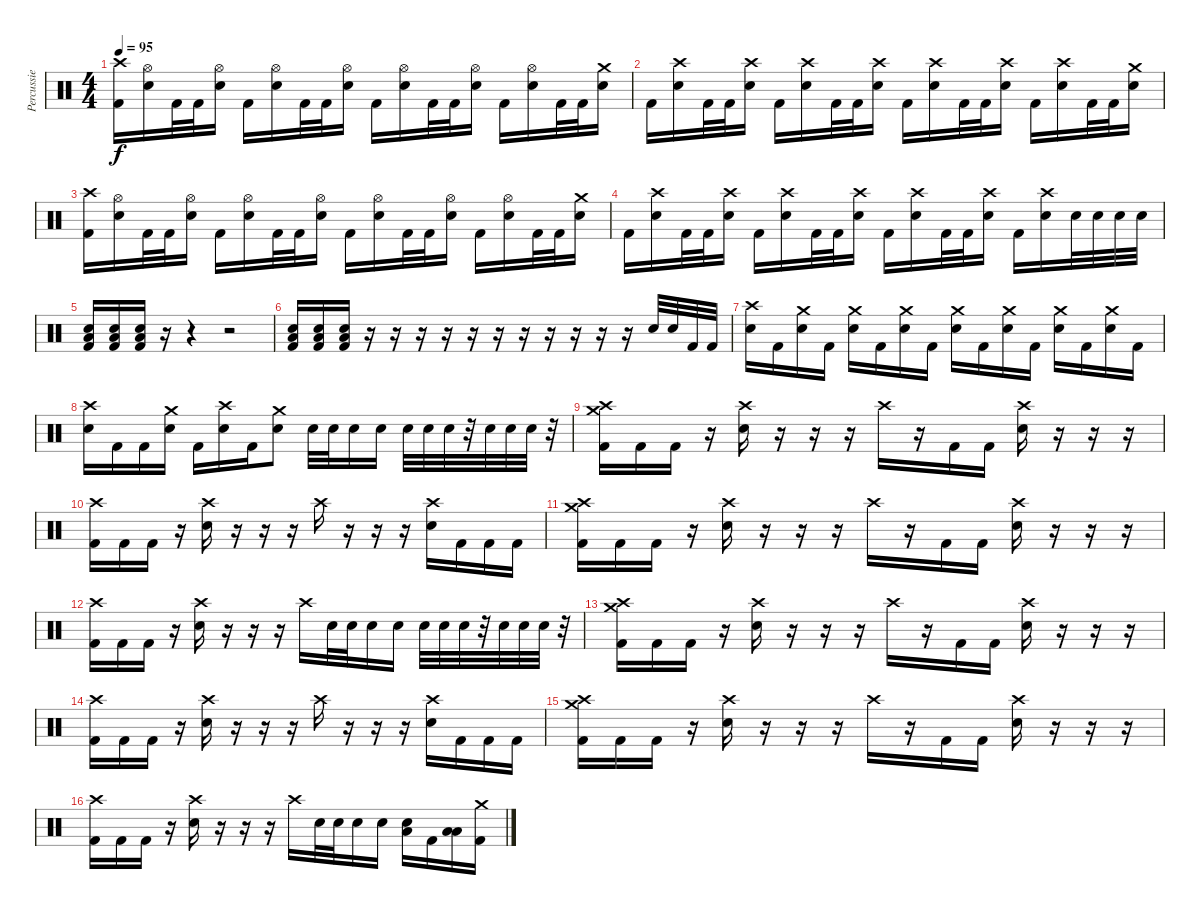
\track ("Percussie" "Percussie") {instrument percussion}
\staff {score}
\articulation defaults
\ts (4 4)
\tempo 95
\clef neutral
\ks c
("Crash high (hit)" "Kick (hit) 2").16{dy f} ("Hi-Hat (open)" "Electric Snare (hit)").16 "Kick (hit) 2".32 "Kick (hit) 2".32 ("Hi-Hat (open)" "Electric Snare (hit)").16 "Kick (hit) 2".16 ("Hi-Hat (open)" "Electric Snare (hit)").16 "Kick (hit) 2".32 "Kick (hit) 2".32 ("Hi-Hat (open)" "Electric Snare (hit)").16 "Kick (hit) 2".16 ("Hi-Hat (open)" "Electric Snare (hit)").16 "Kick (hit) 2".32 "Kick (hit) 2".32 ("Hi-Hat (open)" "Electric Snare (hit)").16 "Kick (hit) 2".16 ("Hi-Hat (open)" "Electric Snare (hit)").16 "Kick (hit) 2".32 "Kick (hit) 2".32 ("Crash medium (hit)" "Electric Snare (hit)").16 |
"Kick (hit) 2".16 ("Crash high (hit)" "Electric Snare (hit)").16 "Kick (hit) 2".32 "Kick (hit) 2".32 ("Crash high (hit)" "Electric Snare (hit)").16 "Kick (hit) 2".16 ("Crash high (hit)" "Electric Snare (hit)").16 "Kick (hit) 2".32 "Kick (hit) 2".32 ("Crash high (hit)" "Electric Snare (hit)").16 "Kick (hit) 2".16 ("Crash high (hit)" "Electric Snare (hit)").16 "Kick (hit) 2".32 "Kick (hit) 2".32 ("Crash high (hit)" "Electric Snare (hit)").16 "Kick (hit) 2".16 ("Crash high (hit)" "Electric Snare (hit)").16 "Kick (hit) 2".32 "Kick (hit) 2".32 ("Crash medium (hit)" "Electric Snare (hit)").16 |
("Crash high (hit)" "Kick (hit) 2").16 ("Hi-Hat (open)" "Electric Snare (hit)").16 "Kick (hit) 2".32 "Kick (hit) 2".32 ("Hi-Hat (open)" "Electric Snare (hit)").16 "Kick (hit) 2".16 ("Hi-Hat (open)" "Electric Snare (hit)").16 "Kick (hit) 2".32 "Kick (hit) 2".32 ("Hi-Hat (open)" "Electric Snare (hit)").16 "Kick (hit) 2".16 ("Hi-Hat (open)" "Electric Snare (hit)").16 "Kick (hit) 2".32 "Kick (hit) 2".32 ("Hi-Hat (open)" "Electric Snare (hit)").16 "Kick (hit) 2".16 ("Hi-Hat (open)" "Electric Snare (hit)").16 "Kick (hit) 2".32 "Kick (hit) 2".32 ("Crash medium (hit)" "Electric Snare (hit)").16 |
"Kick (hit) 2".16 ("Crash high (hit)" "Electric Snare (hit)").16 "Kick (hit) 2".32 "Kick (hit) 2".32 ("Crash high (hit)" "Electric Snare (hit)").16 "Kick (hit) 2".16 ("Crash high (hit)" "Electric Snare (hit)").16 "Kick (hit) 2".32 "Kick (hit) 2".32 ("Crash high (hit)" "Electric Snare (hit)").16 "Kick (hit) 2".16 ("Crash high (hit)" "Electric Snare (hit)").16 "Kick (hit) 2".32 "Kick (hit) 2".32 ("Crash high (hit)" "Electric Snare (hit)").16 "Kick (hit) 2".16 ("Crash high (hit)" "Electric Snare (hit)").16 "Electric Snare (hit)".32 "Electric Snare (hit)".32 "Electric Snare (hit)".32 "Electric Snare (hit)".32 |
("Electric Snare (hit)" "Low Floor Tom (hit)" "Kick (hit) 2").16 ("Electric Snare (hit)" "Low Floor Tom (hit)" "Kick (hit) 2").16 ("Electric Snare (hit)" "Low Floor Tom (hit)" "Kick (hit) 2").16 r.16 r.4 r.2 |
("Electric Snare (hit)" "Low Floor Tom (hit)" "Kick (hit) 2").16 ("Electric Snare (hit)" "Low Floor Tom (hit)" "Kick (hit) 2").16 ("Electric Snare (hit)" "Low Floor Tom (hit)" "Kick (hit) 2").16 r.16 r.16 r.16 r.16 r.16 r.16 r.16 r.16 r.16 r.16 r.16 "Electric Snare (hit)".32 "Electric Snare (hit)".32 "Kick (hit) 2".32 "Kick (hit) 2".32 |
("Crash high (hit)" "Electric Snare (hit)").16 "Kick (hit) 2".16 ("Crash medium (hit)" "Electric Snare (hit)").16 "Kick (hit) 2".16 ("Crash medium (hit)" "Electric Snare (hit)").16 "Kick (hit) 2".16 ("Crash medium (hit)" "Electric Snare (hit)").16 "Kick (hit) 2".16 ("Crash medium (hit)" "Electric Snare (hit)").16 "Kick (hit) 2".16 ("Crash medium (hit)" "Electric Snare (hit)").16 "Kick (hit) 2".16 ("Crash medium (hit)" "Electric Snare (hit)").16 "Kick (hit) 2".16 ("Crash medium (hit)" "Electric Snare (hit)").16 "Kick (hit) 2".16 |
("Crash high (hit)" "Electric Snare (hit)").16 "Kick (hit) 2".16 "Kick (hit) 2".16 ("Crash medium (hit)" "Electric Snare (hit)").16 "Kick (hit) 2".16 ("Crash high (hit)" "Electric Snare (hit)").16 "Kick (hit) 2".16 ("Crash medium (hit)" "Electric Snare (hit)").8 "Electric Snare (hit)".32 "Electric Snare (hit)".32 "Electric Snare (hit)".16 "Electric Snare (hit)".16 "Electric Snare (hit)".32 "Electric Snare (hit)".32 "Electric Snare (hit)".32 r.32 "Electric Snare (hit)".32 "Electric Snare (hit)".32 "Electric Snare (hit)".32 r.32 |
("Crash medium (hit)" "Crash high (hit)" "Kick (hit) 2").16 "Kick (hit) 2".16 "Kick (hit) 2".16 r.16 ("Crash high (hit)" "Electric Snare (hit)").16 r.16 r.16 r.16 "Crash high (hit)".16 r.16 "Kick (hit) 2".16 "Kick (hit) 2".16 ("Crash high (hit)" "Electric Snare (hit)").16 r.16 r.16 r.16 |
("Crash high (hit)" "Kick (hit) 2").16 "Kick (hit) 2".16 "Kick (hit) 2".16 r.16 ("Crash high (hit)" "Electric Snare (hit)").16 r.16 r.16 r.16 "Crash high (hit)".16 r.16 r.16 r.16 ("Crash high (hit)" "Electric Snare (hit)").16 "Kick (hit) 2".16 "Kick (hit) 2".16 "Kick (hit) 2".16 |
("Crash medium (hit)" "Crash high (hit)" "Kick (hit) 2").16 "Kick (hit) 2".16 "Kick (hit) 2".16 r.16 ("Crash high (hit)" "Electric Snare (hit)").16 r.16 r.16 r.16 "Crash high (hit)".16 r.16 "Kick (hit) 2".16 "Kick (hit) 2".16 ("Crash high (hit)" "Electric Snare (hit)").16 r.16 r.16 r.16 |
("Crash high (hit)" "Kick (hit) 2").16 "Kick (hit) 2".16 "Kick (hit) 2".16 r.16 ("Crash high (hit)" "Electric Snare (hit)").16 r.16 r.16 r.16 "Crash high (hit)".16 "Electric Snare (hit)".32 "Electric Snare (hit)".32 "Electric Snare (hit)".16 "Electric Snare (hit)".16 "Electric Snare (hit)".32 "Electric Snare (hit)".32 "Electric Snare (hit)".32 r.32 "Electric Snare (hit)".32 "Electric Snare (hit)".32 "Electric Snare (hit)".32 r.32 |
("Crash medium (hit)" "Crash high (hit)" "Kick (hit) 2").16 "Kick (hit) 2".16 "Kick (hit) 2".16 r.16 ("Crash high (hit)" "Electric Snare (hit)").16 r.16 r.16 r.16 "Crash high (hit)".16 r.16 "Kick (hit) 2".16 "Kick (hit) 2".16 ("Crash high (hit)" "Electric Snare (hit)").16 r.16 r.16 r.16 |
("Crash high (hit)" "Kick (hit) 2").16 "Kick (hit) 2".16 "Kick (hit) 2".16 r.16 ("Crash high (hit)" "Electric Snare (hit)").16 r.16 r.16 r.16 "Crash high (hit)".16 r.16 r.16 r.16 ("Crash high (hit)" "Electric Snare (hit)").16 "Kick (hit) 2".16 "Kick (hit) 2".16 "Kick (hit) 2".16 |
("Crash medium (hit)" "Crash high (hit)" "Kick (hit) 2").16 "Kick (hit) 2".16 "Kick (hit) 2".16 r.16 ("Crash high (hit)" "Electric Snare (hit)").16 r.16 r.16 r.16 "Crash high (hit)".16 r.16 "Kick (hit) 2".16 "Kick (hit) 2".16 ("Crash high (hit)" "Electric Snare (hit)").16 r.16 r.16 r.16 |
("Crash high (hit)" "Kick (hit) 2").16 "Kick (hit) 2".16 "Kick (hit) 2".16 r.16 ("Crash high (hit)" "Electric Snare (hit)").16 r.16 r.16 r.16 "Crash high (hit)".16 "Electric Snare (hit)".32 "Electric Snare (hit)".32 "Electric Snare (hit)".16 "Electric Snare (hit)".16 ("Low Floor Tom (hit)" "Electric Snare (hit)").16 "Kick (hit) 2".16 ("Low Tom (hit)" "Low Floor Tom (hit)").16 ("Crash medium (hit)" "Kick (hit) 2").16
